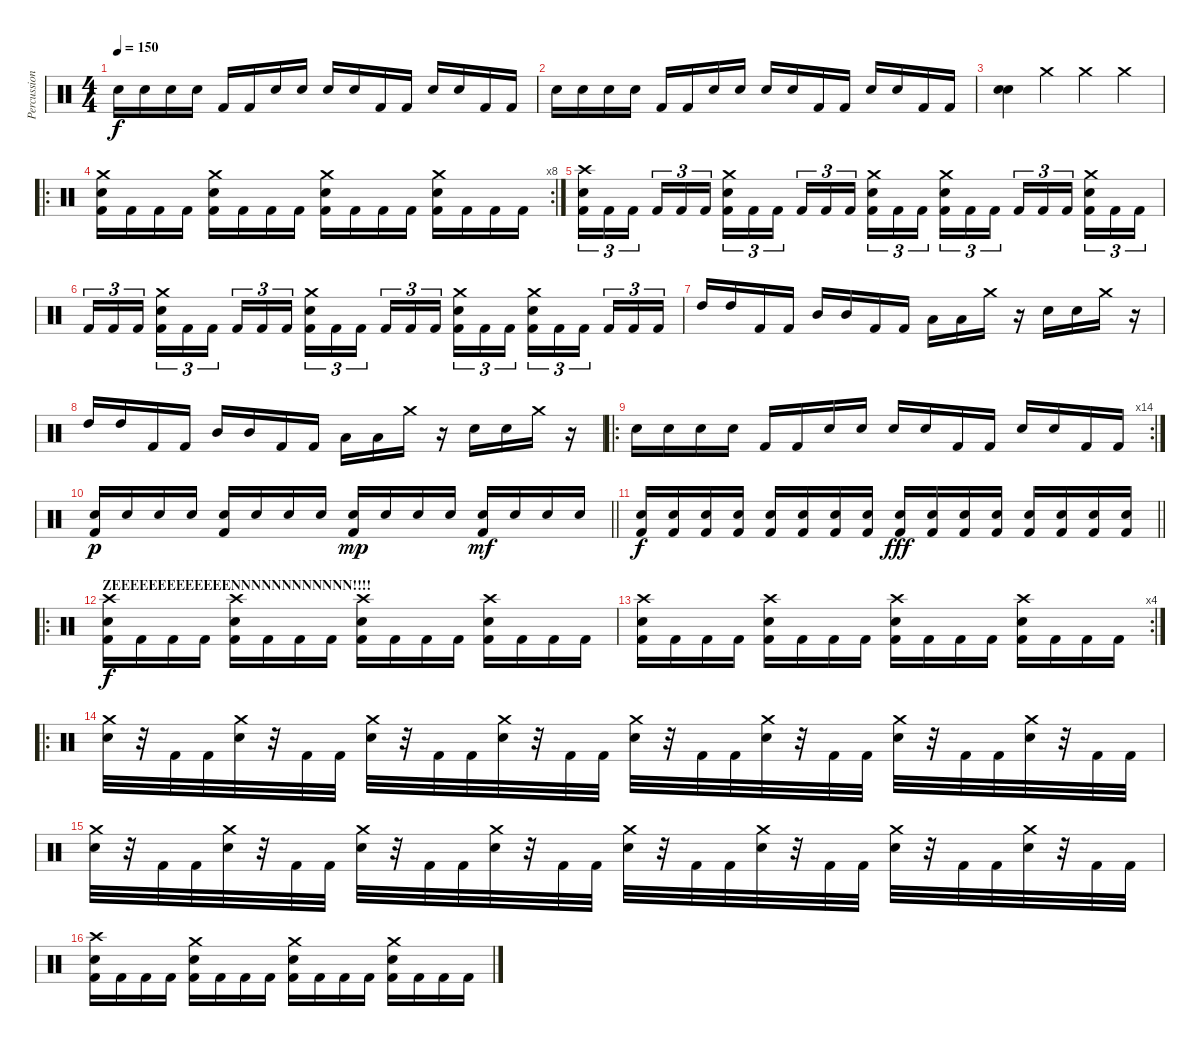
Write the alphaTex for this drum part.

\track ("Percussion" "Percussion") {instrument percussion}
\staff {score}
\articulation defaults
\ts (4 4)
\tempo 150
\clef neutral
\ks c "Electric Snare (hit)".16{dy f} "Electric Snare (hit)".16 "Electric Snare (hit)".16 "Electric Snare (hit)".16 "Kick (hit) 2".16 "Kick (hit) 2".16 "Electric Snare (hit)".16 "Electric Snare (hit)".16 "Electric Snare (hit)".16 "Electric Snare (hit)".16 "Kick (hit) 2".16 "Kick (hit) 2".16 "Electric Snare (hit)".16 "Electric Snare (hit)".16 "Kick (hit) 2".16 "Kick (hit) 2".16
|
"Electric Snare (hit)".16 "Electric Snare (hit)".16 "Electric Snare (hit)".16 "Electric Snare (hit)".16 "Kick (hit) 2".16 "Kick (hit) 2".16 "Electric Snare (hit)".16 "Electric Snare (hit)".16 "Electric Snare (hit)".16 "Electric Snare (hit)".16 "Kick (hit) 2".16 "Kick (hit) 2".16 "Electric Snare (hit)".16 "Electric Snare (hit)".16 "Kick (hit) 2".16 "Kick (hit) 2".16 |
("Electric Snare (hit)" "Electric Snare (hit)").4{bu 480} "Crash medium (hit)".4 "Crash medium (hit)".4 "Crash medium (hit)".4 |
\ro
\rc 8
("Crash medium (hit)" "Electric Snare (hit)" "Kick (hit) 2").16 "Kick (hit) 2".16 "Kick (hit) 2".16 "Kick (hit) 2".16 ("Crash medium (hit)" "Electric Snare (hit)" "Kick (hit) 2").16 "Kick (hit) 2".16 "Kick (hit) 2".16 "Kick (hit) 2".16 ("Crash medium (hit)" "Electric Snare (hit)" "Kick (hit) 2").16 "Kick (hit) 2".16 "Kick (hit) 2".16 "Kick (hit) 2".16 ("Crash medium (hit)" "Electric Snare (hit)" "Kick (hit) 2").16 "Kick (hit) 2".16 "Kick (hit) 2".16 "Kick (hit) 2".16 |
("Crash high (hit)" "Electric Snare (hit)" "Kick (hit) 2").16{tu (3 2)} "Kick (hit) 2".16{tu (3 2)} "Kick (hit) 2".16{tu (3 2) beam splitsecondary} "Kick (hit) 2".16{tu (3 2)} "Kick (hit) 2".16{tu (3 2)} "Kick (hit) 2".16{tu (3 2)} ("Crash medium (hit)" "Electric Snare (hit)" "Kick (hit) 2").16{tu (3 2)} "Kick (hit) 2".16{tu (3 2)} "Kick (hit) 2".16{tu (3 2) beam splitsecondary} "Kick (hit) 2".16{tu (3 2)} "Kick (hit) 2".16{tu (3 2)} "Kick (hit) 2".16{tu (3 2)} ("Crash medium (hit)" "Electric Snare (hit)" "Kick (hit) 2").16{tu (3 2)} "Kick (hit) 2".16{tu (3 2)} "Kick (hit) 2".16{tu (3 2) beam splitsecondary} ("Crash medium (hit)" "Electric Snare (hit)" "Kick (hit) 2").16{tu (3 2)} "Kick (hit) 2".16{tu (3 2)} "Kick (hit) 2".16{tu (3 2)} "Kick (hit) 2".16{tu (3 2)} "Kick (hit) 2".16{tu (3 2)} "Kick (hit) 2".16{tu (3 2) beam splitsecondary} ("Crash medium (hit)" "Electric Snare (hit)" "Kick (hit) 2").16{tu (3 2)} "Kick (hit) 2".16{tu (3 2)} "Kick (hit) 2".16{tu (3 2)} |
"Kick (hit) 2".16{tu (3 2)} "Kick (hit) 2".16{tu (3 2)} "Kick (hit) 2".16{tu (3 2) beam splitsecondary} ("Crash medium (hit)" "Electric Snare (hit)" "Kick (hit) 2").16{tu (3 2)} "Kick (hit) 2".16{tu (3 2)} "Kick (hit) 2".16{tu (3 2)} "Kick (hit) 2".16{tu (3 2)} "Kick (hit) 2".16{tu (3 2)} "Kick (hit) 2".16{tu (3 2) beam splitsecondary} ("Crash medium (hit)" "Electric Snare (hit)" "Kick (hit) 2").16{tu (3 2)} "Kick (hit) 2".16{tu (3 2)} "Kick (hit) 2".16{tu (3 2)} "Kick (hit) 2".16{tu (3 2)} "Kick (hit) 2".16{tu (3 2)} "Kick (hit) 2".16{tu (3 2) beam splitsecondary} ("Crash medium (hit)" "Electric Snare (hit)" "Kick (hit) 2").16{tu (3 2)} "Kick (hit) 2".16{tu (3 2)} "Kick (hit) 2".16{tu (3 2)} ("Crash medium (hit)" "Electric Snare (hit)" "Kick (hit) 2").16{tu (3 2)} "Kick (hit) 2".16{tu (3 2)} "Kick (hit) 2".16{tu (3 2) beam splitsecondary} "Kick (hit) 2".16{tu (3 2)} "Kick (hit) 2".16{tu (3 2)} "Kick (hit) 2".16{tu (3 2)} |
"High Tom (hit)".16 "High Tom (hit)".16 "Kick (hit) 2".16 "Kick (hit) 2".16 "Mid Tom (hit)".16 "Mid Tom (hit)".16 "Kick (hit) 2".16 "Kick (hit) 2".16 "Low Tom (hit)".16 "Low Tom (hit)".16 "Crash medium (hit)".16 r.16 "Electric Snare (hit)".16 "Electric Snare (hit)".16 "Crash medium (hit)".16 r.16 |
"High Tom (hit)".16 "High Tom (hit)".16 "Kick (hit) 2".16 "Kick (hit) 2".16 "Mid Tom (hit)".16 "Mid Tom (hit)".16 "Kick (hit) 2".16 "Kick (hit) 2".16 "Low Tom (hit)".16 "Low Tom (hit)".16 "Crash medium (hit)".16 r.16 "Electric Snare (hit)".16 "Electric Snare (hit)".16 "Crash medium (hit)".16 r.16 |
\ro
\rc 14 "Electric Snare (hit)".16 "Electric Snare (hit)".16 "Electric Snare (hit)".16 "Electric Snare (hit)".16 "Kick (hit) 2".16 "Kick (hit) 2".16 "Electric Snare (hit)".16 "Electric Snare (hit)".16 "Electric Snare (hit)".16 "Electric Snare (hit)".16 "Kick (hit) 2".16 "Kick (hit) 2".16 "Electric Snare (hit)".16 "Electric Snare (hit)".16 "Kick (hit) 2".16 "Kick (hit) 2".16
|
\barLineRight lightlight
("Electric Snare (hit)" "Kick (hit) 2").16{dy p} "Electric Snare (hit)".16 "Electric Snare (hit)".16 "Electric Snare (hit)".16 ("Electric Snare (hit)" "Kick (hit) 2").16 "Electric Snare (hit)".16 "Electric Snare (hit)".16 "Electric Snare (hit)".16 ("Electric Snare (hit)" "Kick (hit) 2").16{dy mp} "Electric Snare (hit)".16 "Electric Snare (hit)".16 "Electric Snare (hit)".16 ("Electric Snare (hit)" "Kick (hit) 2").16{dy mf} "Electric Snare (hit)".16 "Electric Snare (hit)".16 "Electric Snare (hit)".16 |
\barLineRight lightlight
("Electric Snare (hit)" "Kick (hit) 2").16{dy f} ("Electric Snare (hit)" "Kick (hit) 2").16 ("Electric Snare (hit)" "Kick (hit) 2").16 ("Electric Snare (hit)" "Kick (hit) 2").16 ("Electric Snare (hit)" "Kick (hit) 2").16 ("Electric Snare (hit)" "Kick (hit) 2").16 ("Electric Snare (hit)" "Kick (hit) 2").16 ("Electric Snare (hit)" "Kick (hit) 2").16 ("Electric Snare (hit)" "Kick (hit) 2").16{dy fff} ("Electric Snare (hit)" "Kick (hit) 2").16 ("Electric Snare (hit)" "Kick (hit) 2").16 ("Electric Snare (hit)" "Kick (hit) 2").16 ("Electric Snare (hit)" "Kick (hit) 2").16 ("Electric Snare (hit)" "Kick (hit) 2").16 ("Electric Snare (hit)" "Kick (hit) 2").16 ("Electric Snare (hit)" "Kick (hit) 2").16 |
\ro
\section ("" "ZEEEEEEEEEEEEENNNNNNNNNNNN!!!!")
("Crash high (hit)" "Electric Snare (hit)" "Kick (hit) 2").16{dy f} "Kick (hit) 2".16 "Kick (hit) 2".16 "Kick (hit) 2".16 ("Crash high (hit)" "Electric Snare (hit)" "Kick (hit) 2").16 "Kick (hit) 2".16 "Kick (hit) 2".16 "Kick (hit) 2".16 ("Crash high (hit)" "Electric Snare (hit)" "Kick (hit) 2").16 "Kick (hit) 2".16 "Kick (hit) 2".16 "Kick (hit) 2".16 ("Crash high (hit)" "Electric Snare (hit)" "Kick (hit) 2").16 "Kick (hit) 2".16 "Kick (hit) 2".16 "Kick (hit) 2".16 |
\rc 4
("Crash high (hit)" "Electric Snare (hit)" "Kick (hit) 2").16 "Kick (hit) 2".16 "Kick (hit) 2".16 "Kick (hit) 2".16 ("Crash high (hit)" "Electric Snare (hit)" "Kick (hit) 2").16 "Kick (hit) 2".16 "Kick (hit) 2".16 "Kick (hit) 2".16 ("Crash high (hit)" "Electric Snare (hit)" "Kick (hit) 2").16 "Kick (hit) 2".16 "Kick (hit) 2".16 "Kick (hit) 2".16 ("Crash high (hit)" "Electric Snare (hit)" "Kick (hit) 2").16 "Kick (hit) 2".16 "Kick (hit) 2".16 "Kick (hit) 2".16 |
\ro
("Crash medium (hit)" "Electric Snare (hit)").32 r.32 "Kick (hit) 2".32 "Kick (hit) 2".32 ("Crash medium (hit)" "Electric Snare (hit)").32 r.32 "Kick (hit) 2".32 "Kick (hit) 2".32 ("Crash medium (hit)" "Electric Snare (hit)").32 r.32 "Kick (hit) 2".32 "Kick (hit) 2".32 ("Crash medium (hit)" "Electric Snare (hit)").32 r.32 "Kick (hit) 2".32 "Kick (hit) 2".32 ("Crash medium (hit)" "Electric Snare (hit)").32 r.32 "Kick (hit) 2".32 "Kick (hit) 2".32 ("Crash medium (hit)" "Electric Snare (hit)").32 r.32 "Kick (hit) 2".32 "Kick (hit) 2".32 ("Crash medium (hit)" "Electric Snare (hit)").32 r.32 "Kick (hit) 2".32 "Kick (hit) 2".32 ("Crash medium (hit)" "Electric Snare (hit)").32 r.32 "Kick (hit) 2".32 "Kick (hit) 2".32 |
("Crash medium (hit)" "Electric Snare (hit)").32 r.32 "Kick (hit) 2".32 "Kick (hit) 2".32 ("Crash medium (hit)" "Electric Snare (hit)").32 r.32 "Kick (hit) 2".32 "Kick (hit) 2".32 ("Crash medium (hit)" "Electric Snare (hit)").32 r.32 "Kick (hit) 2".32 "Kick (hit) 2".32 ("Crash medium (hit)" "Electric Snare (hit)").32 r.32 "Kick (hit) 2".32 "Kick (hit) 2".32 ("Crash medium (hit)" "Electric Snare (hit)").32 r.32 "Kick (hit) 2".32 "Kick (hit) 2".32 ("Crash medium (hit)" "Electric Snare (hit)").32 r.32 "Kick (hit) 2".32 "Kick (hit) 2".32 ("Crash medium (hit)" "Electric Snare (hit)").32 r.32 "Kick (hit) 2".32 "Kick (hit) 2".32 ("Crash medium (hit)" "Electric Snare (hit)").32 r.32 "Kick (hit) 2".32 "Kick (hit) 2".32 |
("Crash high (hit)" "Electric Snare (hit)" "Kick (hit) 2").16 "Kick (hit) 2".16 "Kick (hit) 2".16 "Kick (hit) 2".16 ("Crash medium (hit)" "Electric Snare (hit)" "Kick (hit) 2").16 "Kick (hit) 2".16 "Kick (hit) 2".16 "Kick (hit) 2".16 ("Crash medium (hit)" "Electric Snare (hit)" "Kick (hit) 2").16 "Kick (hit) 2".16 "Kick (hit) 2".16 "Kick (hit) 2".16 ("Crash medium (hit)" "Electric Snare (hit)" "Kick (hit) 2").16 "Kick (hit) 2".16 "Kick (hit) 2".16 "Kick (hit) 2".16
